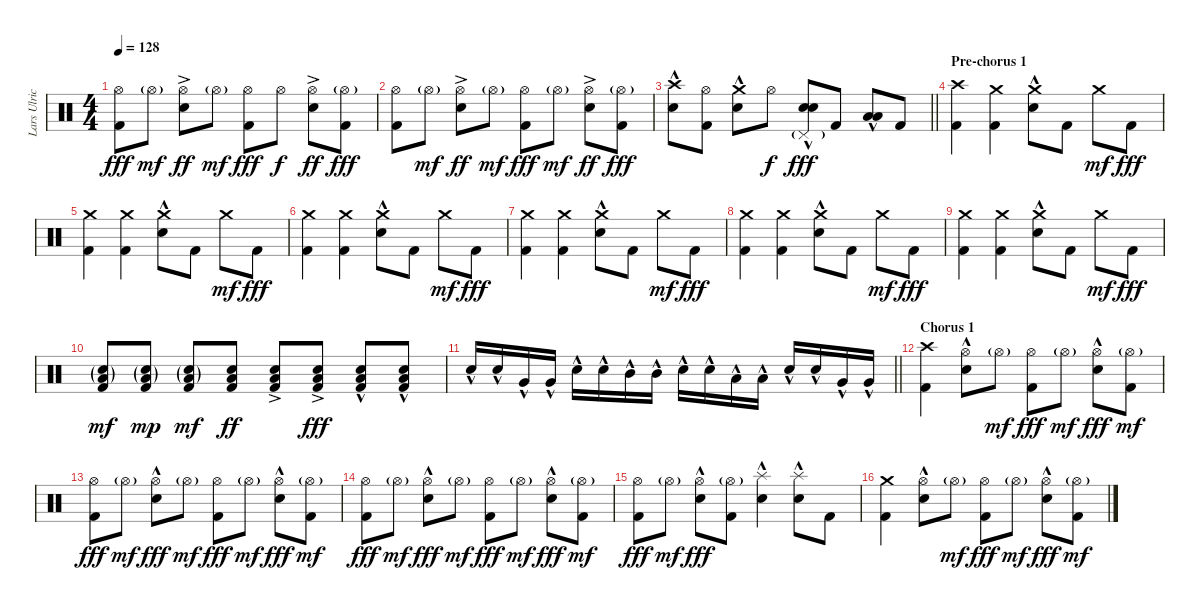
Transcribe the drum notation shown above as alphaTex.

\track ("Lars Ulrich (Drums)" "Lars Ulric") {instrument percussion}
\staff {score}
\articulation defaults
\ts (4 4)
\tempo 128
\clef neutral
\ks c
("Hi-Hat (open)" "Kick (hit) 2").8{dy fff} "Hi-Hat (open)"{g}.8{dy mf} ("Hi-Hat (open)"{ac} "Electric Snare (hit)"{ac}).8{dy ff} "Hi-Hat (open)"{g}.8{dy mf} ("Hi-Hat (open)" "Kick (hit) 2").8{dy fff} "Hi-Hat (open)".8{dy f} ("Hi-Hat (open)"{ac} "Electric Snare (hit)"{ac}).8{dy ff} ("Hi-Hat (open)"{g} "Kick (hit) 2").8{dy fff} |
("Hi-Hat (open)" "Kick (hit) 2").8 "Hi-Hat (open)"{g}.8{dy mf} ("Hi-Hat (open)"{ac} "Electric Snare (hit)"{ac}).8{dy ff} "Hi-Hat (open)"{g}.8{dy mf} ("Hi-Hat (open)" "Kick (hit) 2").8{dy fff} "Hi-Hat (open)"{g}.8{dy mf} ("Hi-Hat (open)"{ac} "Electric Snare (hit)"{ac}).8{dy ff} ("Hi-Hat (open)"{g} "Kick (hit) 2").8{dy fff} |
\barLineRight lightlight
("Crash high (hit)" "Electric Snare (hit)"{hac}).8 ("Hi-Hat (open)" "Kick (hit) 2").8 ("Crash medium (hit)" "Electric Snare (hit)"{hac}).8 "Hi-Hat (open)".8{dy f} ("Pedal Hi-Hat (hit)"{g} "Electric Snare (hit)"{hac} "Electric Snare (hit)"{hac}).8{bd 60 dy fff} "Kick (hit) 2".8 ("Low Tom (hit)"{hac} "Low Tom (hit)"{hac}).8{bu 60} "Kick (hit) 2".8 |
\section ("" "Pre-chorus 1")
("Crash high (hit)" "Kick (hit) 2").4 ("Crash medium (hit)" "Kick (hit) 2").4 ("Crash medium (hit)" "Electric Snare (hit)"{hac}).8 "Kick (hit) 2".8 "Crash medium (hit)".8{dy mf} "Kick (hit) 2".8{dy fff} |
("Crash medium (hit)" "Kick (hit) 2").4 ("Crash medium (hit)" "Kick (hit) 2").4 ("Crash medium (hit)" "Electric Snare (hit)"{hac}).8 "Kick (hit) 2".8 "Crash medium (hit)".8{dy mf} "Kick (hit) 2".8{dy fff} |
("Crash medium (hit)" "Kick (hit) 2").4 ("Crash medium (hit)" "Kick (hit) 2").4 ("Crash medium (hit)" "Electric Snare (hit)"{hac}).8 "Kick (hit) 2".8 "Crash medium (hit)".8{dy mf} "Kick (hit) 2".8{dy fff} |
("Crash medium (hit)" "Kick (hit) 2").4 ("Crash medium (hit)" "Kick (hit) 2").4 ("Crash medium (hit)" "Electric Snare (hit)"{hac}).8 "Kick (hit) 2".8 "Crash medium (hit)".8{dy mf} "Kick (hit) 2".8{dy fff} |
("Crash medium (hit)" "Kick (hit) 2").4 ("Crash medium (hit)" "Kick (hit) 2").4 ("Crash medium (hit)" "Electric Snare (hit)"{hac}).8 "Kick (hit) 2".8 "Crash medium (hit)".8{dy mf} "Kick (hit) 2".8{dy fff} |
("Crash medium (hit)" "Kick (hit) 2").4 ("Crash medium (hit)" "Kick (hit) 2").4 ("Crash medium (hit)" "Electric Snare (hit)"{hac}).8 "Kick (hit) 2".8 "Crash medium (hit)".8{dy mf} "Kick (hit) 2".8{dy fff} |
("Low Tom (hit)"{g} "Electric Snare (hit)"{g} "Kick (hit) 2").8{dy mf} ("Low Tom (hit)"{g} "Electric Snare (hit)"{g} "Kick (hit) 2").8{dy mp} ("Low Tom (hit)"{g} "Electric Snare (hit)"{g} "Kick (hit) 2").8{dy mf} ("Low Tom (hit)" "Electric Snare (hit)" "Kick (hit) 2").8{dy ff} ("Low Tom (hit)"{ac} "Electric Snare (hit)"{ac} "Kick (hit) 2").8 ("Low Tom (hit)"{ac} "Electric Snare (hit)"{ac} "Kick (hit) 2").8{dy fff} ("Low Tom (hit)"{hac} "Electric Snare (hit)"{hac} "Kick (hit) 2").8 ("Low Tom (hit)"{hac} "Electric Snare (hit)"{hac} "Kick (hit) 2").8 |
\barLineRight lightlight "Electric Snare (hit)"{hac}.16 "Electric Snare (hit)"{hac}.16 "Very Low Tom (hit)"{hac}.16 "Very Low Tom (hit)"{hac}.16 "Electric Snare (hit)"{hac}.16 "Electric Snare (hit)"{hac}.16 "Mid Tom (hit)"{hac}.16 "Mid Tom (hit)"{hac}.16 "Electric Snare (hit)"{hac}.16 "Electric Snare (hit)"{hac}.16 "Low Tom (hit)"{hac}.16 "Low Tom (hit)"{hac}.16 "Electric Snare (hit)"{hac}.16 "Electric Snare (hit)"{hac}.16 "Very Low Tom (hit)"{hac}.16 "Very Low Tom (hit)"{hac}.16
|
\section ("" "Chorus 1")
("Crash high (hit)" "Kick (hit) 2").4 ("Hi-Hat (open)" "Electric Snare (hit)"{hac}).8 "Hi-Hat (open)"{g}.8{dy mf} ("Hi-Hat (open)" "Kick (hit) 2").8{dy fff} "Hi-Hat (open)"{g}.8{dy mf} ("Hi-Hat (open)" "Electric Snare (hit)"{hac}).8{dy fff} ("Hi-Hat (open)"{g} "Kick (hit) 2").8{dy mf} |
("Hi-Hat (open)" "Kick (hit) 2").8{dy fff} "Hi-Hat (open)"{g}.8{dy mf} ("Hi-Hat (open)" "Electric Snare (hit)"{hac}).8{dy fff} "Hi-Hat (open)"{g}.8{dy mf} ("Hi-Hat (open)" "Kick (hit) 2").8{dy fff} "Hi-Hat (open)"{g}.8{dy mf} ("Hi-Hat (open)" "Electric Snare (hit)"{hac}).8{dy fff} ("Hi-Hat (open)"{g} "Kick (hit) 2").8{dy mf} |
("Hi-Hat (open)" "Kick (hit) 2").8{dy fff} "Hi-Hat (open)"{g}.8{dy mf} ("Hi-Hat (open)" "Electric Snare (hit)"{hac}).8{dy fff} "Hi-Hat (open)"{g}.8{dy mf} ("Hi-Hat (open)" "Kick (hit) 2").8{dy fff} "Hi-Hat (open)"{g}.8{dy mf} ("Hi-Hat (open)" "Electric Snare (hit)"{hac}).8{dy fff} ("Hi-Hat (open)"{g} "Kick (hit) 2").8{dy mf} |
("Hi-Hat (open)" "Kick (hit) 2").8{dy fff} "Hi-Hat (open)"{g}.8{dy mf} ("Hi-Hat (open)" "Electric Snare (hit)"{hac}).8{dy fff} ("Hi-Hat (open)"{g} "Kick (hit) 2").8 ("Splash (hit)" "Electric Snare (hit)"{hac}).4 ("Splash (hit)" "Electric Snare (hit)"{hac}).8 "Kick (hit) 2".8 |
("Crash medium (hit)" "Kick (hit) 2").4 ("Hi-Hat (open)" "Electric Snare (hit)"{hac}).8 "Hi-Hat (open)"{g}.8{dy mf} ("Hi-Hat (open)" "Kick (hit) 2").8{dy fff} "Hi-Hat (open)"{g}.8{dy mf} ("Hi-Hat (open)" "Electric Snare (hit)"{hac}).8{dy fff} ("Hi-Hat (open)"{g} "Kick (hit) 2").8{dy mf}
